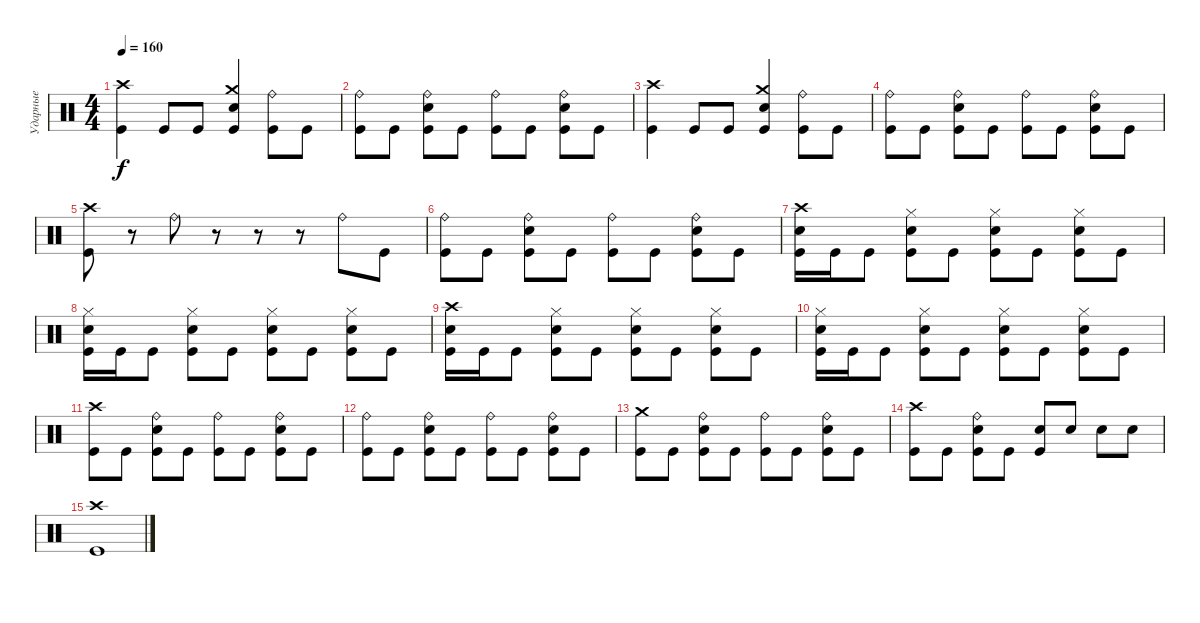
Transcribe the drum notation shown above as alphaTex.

\track ("Ударные" "Ударные") {instrument percussion}
\staff {score}
\articulation defaults
\ts (4 4)
\tempo 160
\clef neutral
\ks c
("Crash high (hit)" "Kick (hit)").4{dy f} "Kick (hit)".8 "Kick (hit)".8 ("Crash medium (hit)" "Electric Snare (hit)" "Kick (hit)").4 ("Ride (bell)" "Kick (hit)").8 "Kick (hit)".8 |
("Ride (bell)" "Kick (hit)").8 "Kick (hit)".8 ("Ride (bell)" "Electric Snare (hit)" "Kick (hit)").8 "Kick (hit)".8 ("Ride (bell)" "Kick (hit)").8 "Kick (hit)".8 ("Ride (bell)" "Electric Snare (hit)" "Kick (hit)").8 "Kick (hit)".8 |
("Crash high (hit)" "Kick (hit)").4 "Kick (hit)".8 "Kick (hit)".8 ("Crash medium (hit)" "Electric Snare (hit)" "Kick (hit)").4 ("Ride (bell)" "Kick (hit)").8 "Kick (hit)".8 |
("Ride (bell)" "Kick (hit)").8 "Kick (hit)".8 ("Ride (bell)" "Electric Snare (hit)" "Kick (hit)").8 "Kick (hit)".8 ("Ride (bell)" "Kick (hit)").8 "Kick (hit)".8 ("Ride (bell)" "Electric Snare (hit)" "Kick (hit)").8 "Kick (hit)".8 |
("Crash high (hit)" "Kick (hit)").8 r.8 "Ride (bell)".8 r.8 r.8 r.8 "Ride (bell)".8 "Kick (hit)".8 |
("Ride (bell)" "Kick (hit)").8 "Kick (hit)".8 ("Ride (bell)" "Electric Snare (hit)" "Kick (hit)").8 "Kick (hit)".8 ("Ride (bell)" "Kick (hit)").8 "Kick (hit)".8 ("Ride (bell)" "Electric Snare (hit)" "Kick (hit)").8 "Kick (hit)".8 |
("Crash high (hit)" "Electric Snare (hit)" "Kick (hit)").16 "Kick (hit)".16 "Kick (hit)".8 ("Hi-Hat (closed)" "Electric Snare (hit)" "Kick (hit)").8 "Kick (hit)".8 ("Hi-Hat (closed)" "Electric Snare (hit)" "Kick (hit)").8 "Kick (hit)".8 ("Hi-Hat (closed)" "Electric Snare (hit)" "Kick (hit)").8 "Kick (hit)".8 |
("Hi-Hat (closed)" "Electric Snare (hit)" "Kick (hit)").16 "Kick (hit)".16 "Kick (hit)".8 ("Hi-Hat (closed)" "Electric Snare (hit)" "Kick (hit)").8 "Kick (hit)".8 ("Hi-Hat (closed)" "Electric Snare (hit)" "Kick (hit)").8 "Kick (hit)".8 ("Hi-Hat (closed)" "Electric Snare (hit)" "Kick (hit)").8 "Kick (hit)".8 |
("Crash high (hit)" "Electric Snare (hit)" "Kick (hit)").16 "Kick (hit)".16 "Kick (hit)".8 ("Hi-Hat (closed)" "Electric Snare (hit)" "Kick (hit)").8 "Kick (hit)".8 ("Hi-Hat (closed)" "Electric Snare (hit)" "Kick (hit)").8 "Kick (hit)".8 ("Hi-Hat (closed)" "Electric Snare (hit)" "Kick (hit)").8 "Kick (hit)".8 |
("Hi-Hat (closed)" "Electric Snare (hit)" "Kick (hit)").16 "Kick (hit)".16 "Kick (hit)".8 ("Hi-Hat (closed)" "Electric Snare (hit)" "Kick (hit)").8 "Kick (hit)".8 ("Hi-Hat (closed)" "Electric Snare (hit)" "Kick (hit)").8 "Kick (hit)".8 ("Hi-Hat (closed)" "Electric Snare (hit)" "Kick (hit)").8 "Kick (hit)".8 |
("Crash high (hit)" "Kick (hit)").8 "Kick (hit)".8 ("Ride (bell)" "Electric Snare (hit)" "Kick (hit)").8 "Kick (hit)".8 ("Ride (bell)" "Kick (hit)").8 "Kick (hit)".8 ("Ride (bell)" "Electric Snare (hit)" "Kick (hit)").8 "Kick (hit)".8 |
("Ride (bell)" "Kick (hit)").8 "Kick (hit)".8 ("Ride (bell)" "Electric Snare (hit)" "Kick (hit)").8 "Kick (hit)".8 ("Ride (bell)" "Kick (hit)").8 "Kick (hit)".8 ("Ride (bell)" "Electric Snare (hit)" "Kick (hit)").8 "Kick (hit)".8 |
("Crash medium (hit)" "Kick (hit)").8 "Kick (hit)".8 ("Ride (bell)" "Electric Snare (hit)" "Kick (hit)").8 "Kick (hit)".8 ("Ride (bell)" "Kick (hit)").8 "Kick (hit)".8 ("Ride (bell)" "Electric Snare (hit)" "Kick (hit)").8 "Kick (hit)".8 |
("Crash high (hit)" "Kick (hit)").8 "Kick (hit)".8 ("Ride (bell)" "Electric Snare (hit)" "Kick (hit)").8 "Kick (hit)".8 ("Electric Snare (hit)" "Kick (hit)").8 "Electric Snare (hit)".8 "Electric Snare (hit)".8 "Electric Snare (hit)".8 |
("Crash high (hit)" "Kick (hit)").1
